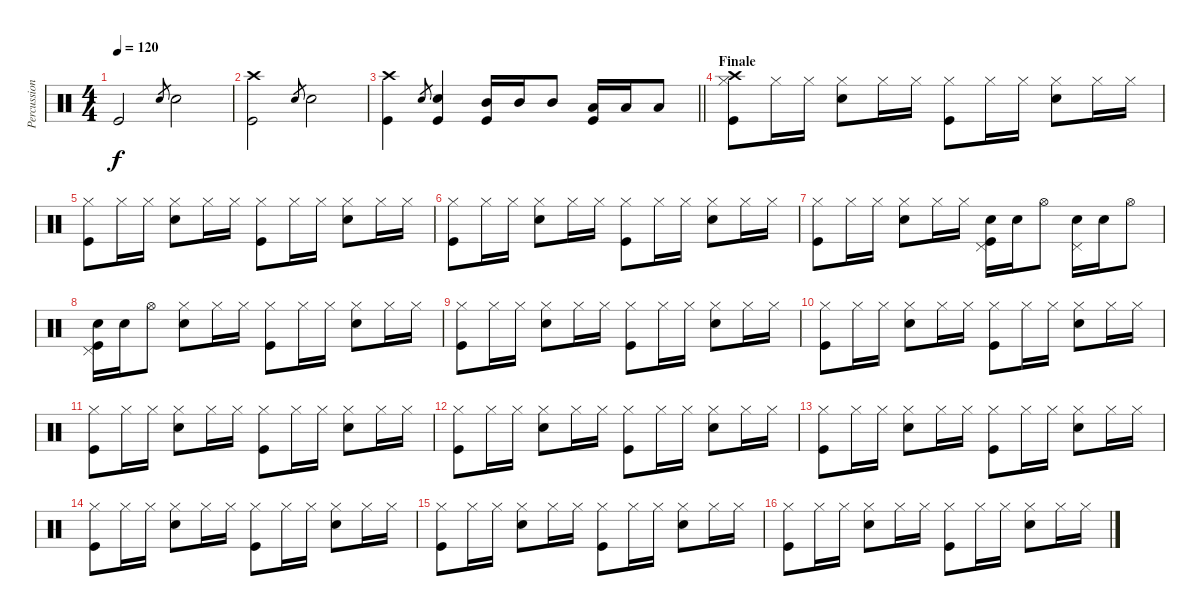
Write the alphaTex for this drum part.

\track ("Percussions" "Percussion") {instrument percussion}
\staff {score}
\articulation defaults
\ts (4 4)
\tempo 120
\clef neutral
\ks c "Kick (hit)".2{dy f} "Snare (hit) 2".8{gr} "Snare (hit) 2".2
|
("Crash high (hit)" "Kick (hit)").2 "Snare (hit) 2".8{gr} "Snare (hit) 2".2 |
\barLineRight lightlight
("Crash high (hit)" "Kick (hit)").4 "Snare (hit) 2".8{gr} ("Snare (hit) 2" "Kick (hit)").4 ("Mid Tom (hit)" "Kick (hit)").16 "Mid Tom (hit)".16 "Mid Tom (hit)".8 ("Low Tom (hit)" "Kick (hit)").16 "Low Tom (hit)".16 "Low Tom (hit)".8 |
\section ("" "Finale")
("Crash high (hit)" "Hi-Hat (closed)" "Kick (hit)").8 "Hi-Hat (closed)".16 "Hi-Hat (closed)".16 ("Hi-Hat (closed)" "Snare (hit) 2").8 "Hi-Hat (closed)".16 "Hi-Hat (closed)".16 ("Hi-Hat (closed)" "Kick (hit)").8 "Hi-Hat (closed)".16 "Hi-Hat (closed)".16 ("Hi-Hat (closed)" "Snare (hit) 2").8 "Hi-Hat (closed)".16 "Hi-Hat (closed)".16 |
("Hi-Hat (closed)" "Kick (hit)").8 "Hi-Hat (closed)".16 "Hi-Hat (closed)".16 ("Hi-Hat (closed)" "Snare (hit) 2").8 "Hi-Hat (closed)".16 "Hi-Hat (closed)".16 ("Hi-Hat (closed)" "Kick (hit)").8 "Hi-Hat (closed)".16 "Hi-Hat (closed)".16 ("Hi-Hat (closed)" "Snare (hit) 2").8 "Hi-Hat (closed)".16 "Hi-Hat (closed)".16 |
("Hi-Hat (closed)" "Kick (hit)").8 "Hi-Hat (closed)".16 "Hi-Hat (closed)".16 ("Hi-Hat (closed)" "Snare (hit) 2").8 "Hi-Hat (closed)".16 "Hi-Hat (closed)".16 ("Hi-Hat (closed)" "Kick (hit)").8 "Hi-Hat (closed)".16 "Hi-Hat (closed)".16 ("Hi-Hat (closed)" "Snare (hit) 2").8 "Hi-Hat (closed)".16 "Hi-Hat (closed)".16 |
("Hi-Hat (closed)" "Kick (hit)").8 "Hi-Hat (closed)".16 "Hi-Hat (closed)".16 ("Hi-Hat (closed)" "Snare (hit) 2").8 "Hi-Hat (closed)".16 "Hi-Hat (closed)".16 ("Pedal Hi-Hat (hit)" "Snare (hit) 2" "Kick (hit)").16 "Snare (hit) 2".16 "Hi-Hat (open)".8 ("Pedal Hi-Hat (hit)" "Snare (hit) 2").16 "Snare (hit) 2".16 "Hi-Hat (open)".8 |
("Pedal Hi-Hat (hit)" "Snare (hit) 2" "Kick (hit)").16 "Snare (hit) 2".16 "Hi-Hat (open)".8 ("Hi-Hat (closed)" "Snare (hit) 2").8 "Hi-Hat (closed)".16 "Hi-Hat (closed)".16 ("Hi-Hat (closed)" "Kick (hit)").8 "Hi-Hat (closed)".16 "Hi-Hat (closed)".16 ("Hi-Hat (closed)" "Snare (hit) 2").8 "Hi-Hat (closed)".16 "Hi-Hat (closed)".16 |
("Hi-Hat (closed)" "Kick (hit)").8 "Hi-Hat (closed)".16 "Hi-Hat (closed)".16 ("Hi-Hat (closed)" "Snare (hit) 2").8 "Hi-Hat (closed)".16 "Hi-Hat (closed)".16 ("Hi-Hat (closed)" "Kick (hit)").8 "Hi-Hat (closed)".16 "Hi-Hat (closed)".16 ("Hi-Hat (closed)" "Snare (hit) 2").8 "Hi-Hat (closed)".16 "Hi-Hat (closed)".16 |
("Hi-Hat (closed)" "Kick (hit)").8 "Hi-Hat (closed)".16 "Hi-Hat (closed)".16 ("Hi-Hat (closed)" "Snare (hit) 2").8 "Hi-Hat (closed)".16 "Hi-Hat (closed)".16 ("Hi-Hat (closed)" "Kick (hit)").8 "Hi-Hat (closed)".16 "Hi-Hat (closed)".16 ("Hi-Hat (closed)" "Snare (hit) 2").8 "Hi-Hat (closed)".16 "Hi-Hat (closed)".16 |
("Hi-Hat (closed)" "Kick (hit)").8 "Hi-Hat (closed)".16 "Hi-Hat (closed)".16 ("Hi-Hat (closed)" "Snare (hit) 2").8 "Hi-Hat (closed)".16 "Hi-Hat (closed)".16 ("Hi-Hat (closed)" "Kick (hit)").8 "Hi-Hat (closed)".16 "Hi-Hat (closed)".16 ("Hi-Hat (closed)" "Snare (hit) 2").8 "Hi-Hat (closed)".16 "Hi-Hat (closed)".16 |
("Hi-Hat (closed)" "Kick (hit)").8 "Hi-Hat (closed)".16 "Hi-Hat (closed)".16 ("Hi-Hat (closed)" "Snare (hit) 2").8 "Hi-Hat (closed)".16 "Hi-Hat (closed)".16 ("Hi-Hat (closed)" "Kick (hit)").8 "Hi-Hat (closed)".16 "Hi-Hat (closed)".16 ("Hi-Hat (closed)" "Snare (hit) 2").8 "Hi-Hat (closed)".16 "Hi-Hat (closed)".16 |
("Hi-Hat (closed)" "Kick (hit)").8 "Hi-Hat (closed)".16 "Hi-Hat (closed)".16 ("Hi-Hat (closed)" "Snare (hit) 2").8 "Hi-Hat (closed)".16 "Hi-Hat (closed)".16 ("Hi-Hat (closed)" "Kick (hit)").8 "Hi-Hat (closed)".16 "Hi-Hat (closed)".16 ("Hi-Hat (closed)" "Snare (hit) 2").8 "Hi-Hat (closed)".16 "Hi-Hat (closed)".16 |
("Hi-Hat (closed)" "Kick (hit)").8 "Hi-Hat (closed)".16 "Hi-Hat (closed)".16 ("Hi-Hat (closed)" "Snare (hit) 2").8 "Hi-Hat (closed)".16 "Hi-Hat (closed)".16 ("Hi-Hat (closed)" "Kick (hit)").8 "Hi-Hat (closed)".16 "Hi-Hat (closed)".16 ("Hi-Hat (closed)" "Snare (hit) 2").8 "Hi-Hat (closed)".16 "Hi-Hat (closed)".16 |
("Hi-Hat (closed)" "Kick (hit)").8 "Hi-Hat (closed)".16 "Hi-Hat (closed)".16 ("Hi-Hat (closed)" "Snare (hit) 2").8 "Hi-Hat (closed)".16 "Hi-Hat (closed)".16 ("Hi-Hat (closed)" "Kick (hit)").8 "Hi-Hat (closed)".16 "Hi-Hat (closed)".16 ("Hi-Hat (closed)" "Snare (hit) 2").8 "Hi-Hat (closed)".16 "Hi-Hat (closed)".16 |
("Hi-Hat (closed)" "Kick (hit)").8 "Hi-Hat (closed)".16 "Hi-Hat (closed)".16 ("Hi-Hat (closed)" "Snare (hit) 2").8 "Hi-Hat (closed)".16 "Hi-Hat (closed)".16 ("Hi-Hat (closed)" "Kick (hit)").8 "Hi-Hat (closed)".16 "Hi-Hat (closed)".16 ("Hi-Hat (closed)" "Snare (hit) 2").8 "Hi-Hat (closed)".16 "Hi-Hat (closed)".16
